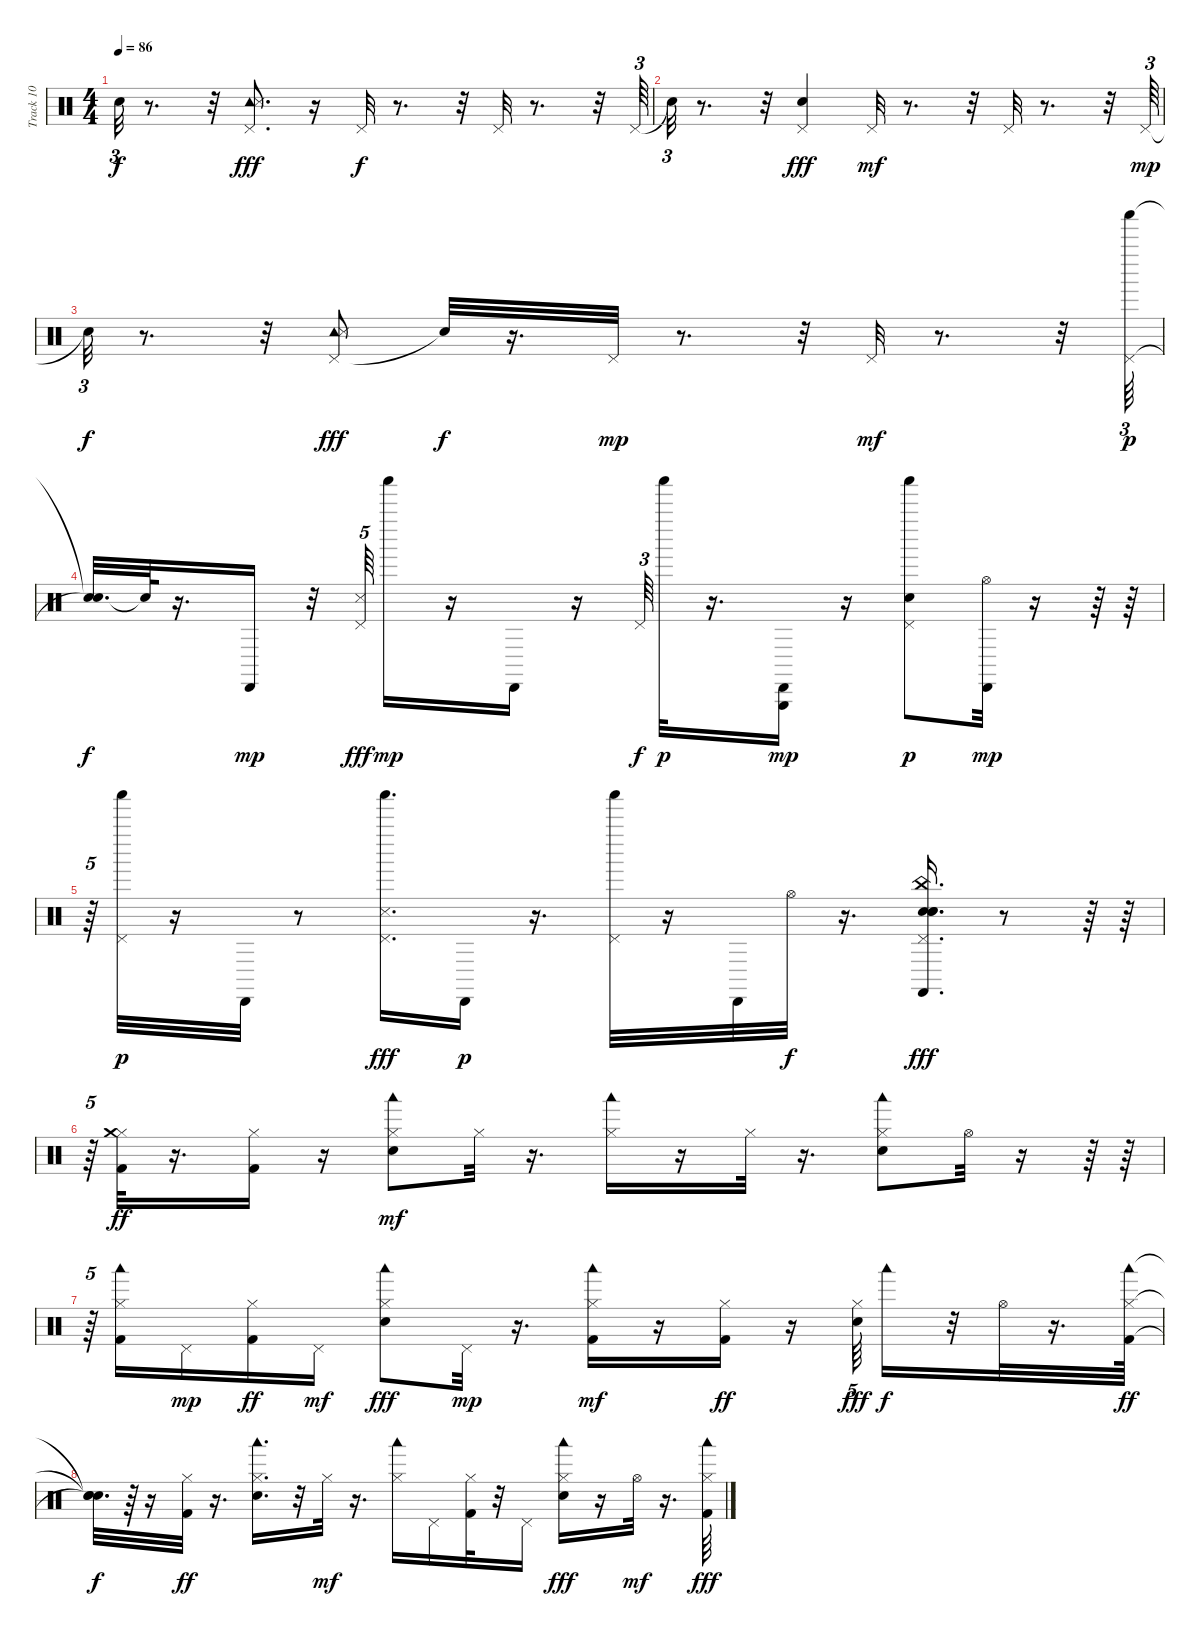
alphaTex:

\track ("Track 10" "Track 10") {instrument percussion}
\staff {score}
\articulation defaults
\ts (4 4)
\tempo 86
\clef neutral
\ks c "Snare (hit)"{t}.32{tu (3 2) dy f}
r.8{d} r.32 ("Pedal Hi-Hat (hit)" "Tambourine (hit)" "Snare (side stick) 3").8{d dy fff} r.16 "Pedal Hi-Hat (hit)".32{dy f} r.8{d} r.32 "Pedal Hi-Hat (hit)".32 r.8{d} r.32 "Pedal Hi-Hat (hit)".64{tu (3 2)} |
"Snare (hit)"{t}.32{tu (3 2)} r.8{d} r.32 ("Pedal Hi-Hat (hit)" "Snare (hit)").4{dy fff} "Pedal Hi-Hat (hit)".32{dy mf} r.8{d} r.32 "Pedal Hi-Hat (hit)".32 r.8{d} r.32 "Pedal Hi-Hat (hit)".64{tu (3 2) dy mp} |
"Snare (hit)"{t}.32{tu (3 2) dy f} r.8{d} r.32 ("Pedal Hi-Hat (hit)" "Tambourine (hit)" "Snare (side stick) 3").8{dy fff} "Snare (hit)"{t}.32{dy f} r.16{d} "Pedal Hi-Hat (hit)".32{dy mp} r.8{d} r.32 "Pedal Hi-Hat (hit)".32{dy mf} r.8{d} r.32 ("Pedal Hi-Hat (hit)" "Shaker (hit)").64{tu (3 2) dy p} |
("Snare (hit)"{t} "Snare (hit)"{t}).32{d dy f} "Snare (hit)"{t}.64 r.16{d} "Cabasa (hit)".16{dy mp} r.32 ("Pedal Hi-Hat (hit)" "Snare (side stick) 3").64{tu (5 4) dy fff} "Shaker (hit)".16{dy mp} r.16 "Cabasa (hit)".16 r.16 "Pedal Hi-Hat (hit)".64{tu (3 2) dy f} "Shaker (hit)".32{dy p} r.16{d} ("Cabasa (hit)" "Triangle (hit)").16{dy mp} r.16 ("Pedal Hi-Hat (hit)" "Snare (hit)" "Shaker (hit)").8{dy p} ("Cabasa (hit)" "Hi-Hat (open)").32{dy mp} r.16 r.64 r.64 |
r.64{tu (5 4)} ("Pedal Hi-Hat (hit)" "Shaker (hit)").32{dy p} r.16 "Cabasa (hit)".32 r.8 ("Shaker (hit)" "Pedal Hi-Hat (hit)" "Snare (side stick) 3").16{d dy fff} "Cabasa (hit)".16{dy p} r.16{d} ("Pedal Hi-Hat (hit)" "Shaker (hit)").32 r.16 "Cabasa (hit)".32 "Hi-Hat (open)".32{dy f} r.16{d} ("Pedal Hi-Hat (hit)" "China (hit)" "Snare (hit)" "Hand Clap (hit)" "Snare (hit)" "Castanets (hit)").16{d dy fff} r.8 r.64 r.64 |
r.64{tu (5 4)} ("Hi-Hat (closed)" "Kick (hit) 2" "Crash medium (hit)").32{dy ff} r.16{d} ("Hi-Hat (closed)" "Kick (hit) 2").16 r.16 ("Hi-Hat (closed)" "Electric Snare (hit)" "Woodblock low (hit)").8{dy mf} "Hi-Hat (closed)".32 r.16{d} ("Woodblock low (hit)" "Hi-Hat (closed)").16 r.16 "Hi-Hat (closed)".32 r.16{d} ("Hi-Hat (closed)" "Electric Snare (hit)" "Woodblock low (hit)").8 "Hi-Hat (open)".32 r.16 r.64 r.64 |
r.64{tu (5 4)} ("Hi-Hat (closed)" "Kick (hit) 2" "Woodblock low (hit)").16 "Pedal Hi-Hat (hit)".16{dy mp} ("Hi-Hat (closed)" "Kick (hit) 2").16{dy ff} "Pedal Hi-Hat (hit)".16{dy mf} ("Hi-Hat (closed)" "Electric Snare (hit)" "Woodblock low (hit)").8{dy fff} "Pedal Hi-Hat (hit)".32{dy mp} r.16{d} ("Hi-Hat (closed)" "Kick (hit) 2" "Woodblock low (hit)").16{dy mf} r.16 ("Hi-Hat (closed)" "Kick (hit) 2").16{dy ff} r.16 ("Hi-Hat (closed)" "Electric Snare (hit)").64{tu (5 4) dy fff} "Woodblock low (hit)".16{dy f} r.32 "Hi-Hat (open)".32 r.16{d} ("Hi-Hat (closed)" "Woodblock low (hit)" "Kick (hit) 2").64{dy ff} |
("Snare (hit)"{t} "Snare (hit)"{t} "Snare (hit)"{t}).32{d dy f} r.64 r.16 ("Hi-Hat (closed)" "Kick (hit) 2").32{dy ff} r.16{d} ("Hi-Hat (closed)" "Electric Snare (hit)" "Woodblock low (hit)").16{d} r.32 "Hi-Hat (closed)".32{dy mf} r.16{d} ("Hi-Hat (closed)" "Woodblock low (hit)").16 "Pedal Hi-Hat (hit)".16 ("Hi-Hat (closed)" "Kick (hit) 2").32 r.32 "Pedal Hi-Hat (hit)".16 ("Hi-Hat (closed)" "Electric Snare (hit)" "Woodblock low (hit)").16{dy fff} r.16 "Hi-Hat (open)".32{dy mf} r.16{d} ("Woodblock low (hit)" "Hi-Hat (closed)" "Kick (hit) 2").64{dy fff}
